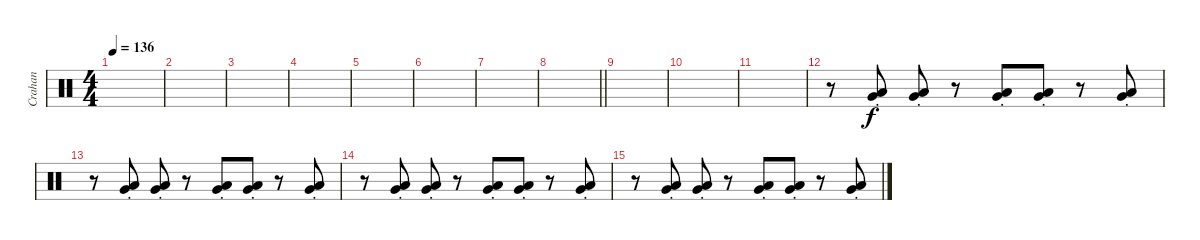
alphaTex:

\track ("Crahan" "Crahan") {instrument percussion}
\staff {score}
\articulation defaults
\ts (4 4)
\tempo 136
\clef neutral
\ks c
|
|
|
|
|
|
|
\barLineRight lightlight
|
|
|
|
r.8 ("Very Low Tom (hit)"{st} "Low Floor Tom (hit)"{st}).8 ("Very Low Tom (hit)"{st} "Low Floor Tom (hit)"{st}).8 r.8 ("Very Low Tom (hit)"{st} "Low Floor Tom (hit)"{st}).8 ("Very Low Tom (hit)"{st} "Low Floor Tom (hit)"{st}).8 r.8 ("Very Low Tom (hit)"{st} "Low Floor Tom (hit)"{st}).8 |
r.8 ("Very Low Tom (hit)"{st} "Low Floor Tom (hit)"{st}).8 ("Very Low Tom (hit)"{st} "Low Floor Tom (hit)"{st}).8 r.8 ("Very Low Tom (hit)"{st} "Low Floor Tom (hit)"{st}).8 ("Very Low Tom (hit)"{st} "Low Floor Tom (hit)"{st}).8 r.8 ("Very Low Tom (hit)"{st} "Low Floor Tom (hit)"{st}).8 |
r.8 ("Very Low Tom (hit)"{st} "Low Floor Tom (hit)"{st}).8 ("Very Low Tom (hit)"{st} "Low Floor Tom (hit)"{st}).8 r.8 ("Very Low Tom (hit)"{st} "Low Floor Tom (hit)"{st}).8 ("Very Low Tom (hit)"{st} "Low Floor Tom (hit)"{st}).8 r.8 ("Very Low Tom (hit)"{st} "Low Floor Tom (hit)"{st}).8 |
r.8 ("Very Low Tom (hit)"{st} "Low Floor Tom (hit)"{st}).8 ("Very Low Tom (hit)"{st} "Low Floor Tom (hit)"{st}).8 r.8 ("Very Low Tom (hit)"{st} "Low Floor Tom (hit)"{st}).8 ("Very Low Tom (hit)"{st} "Low Floor Tom (hit)"{st}).8 r.8 ("Very Low Tom (hit)"{st} "Low Floor Tom (hit)"{st}).8
